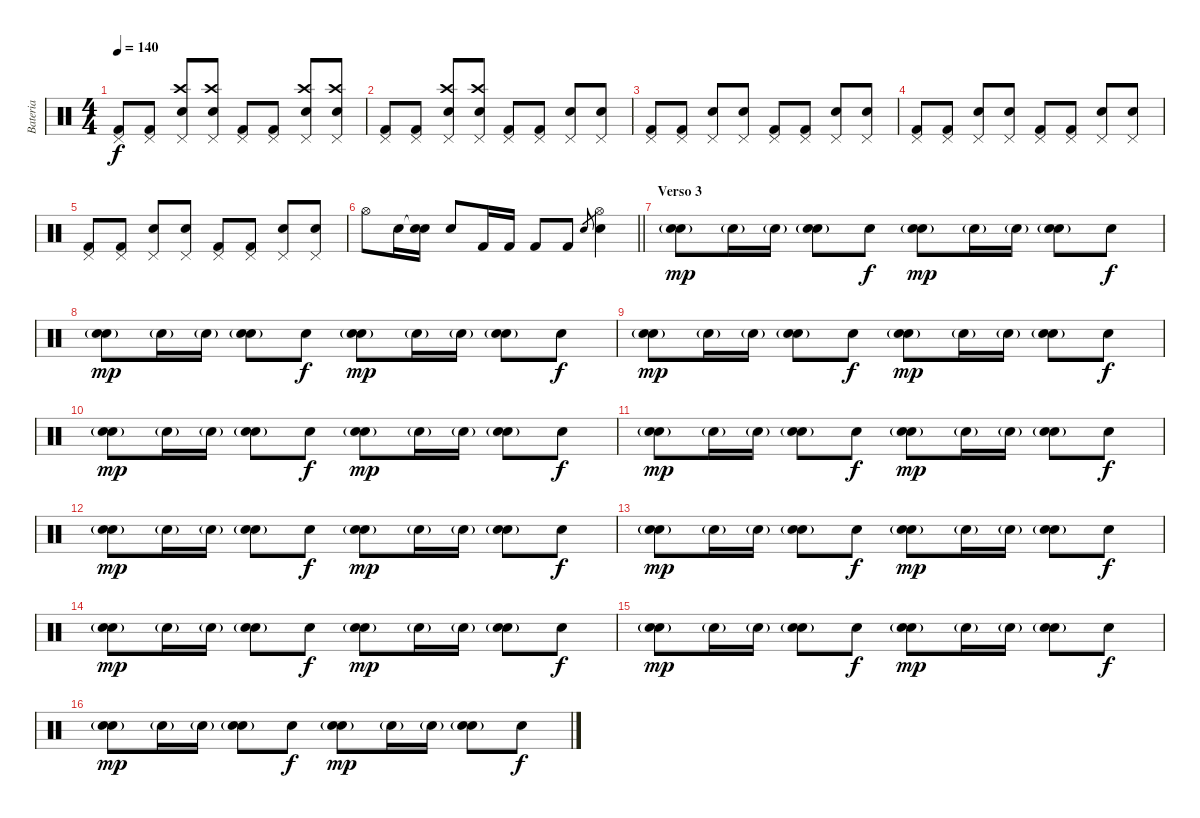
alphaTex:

\track ("Bateria" "Bateria") {instrument percussion}
\staff {score}
\articulation defaults
\ts (4 4)
\tempo 140
\clef neutral
\ks c
("Pedal Hi-Hat (hit)" "Kick (hit) 2").8{dy f} ("Pedal Hi-Hat (hit)" "Kick (hit) 2").8 ("Crash high (hit)" "Pedal Hi-Hat (hit)" "Electric Snare (hit)").8 ("Crash high (hit)" "Pedal Hi-Hat (hit)" "Electric Snare (hit)").8 ("Pedal Hi-Hat (hit)" "Kick (hit) 2").8 ("Pedal Hi-Hat (hit)" "Kick (hit) 2").8 ("Crash high (hit)" "Pedal Hi-Hat (hit)" "Electric Snare (hit)").8 ("Crash high (hit)" "Pedal Hi-Hat (hit)" "Electric Snare (hit)").8 |
("Pedal Hi-Hat (hit)" "Kick (hit) 2").8 ("Pedal Hi-Hat (hit)" "Kick (hit) 2").8 ("Crash high (hit)" "Pedal Hi-Hat (hit)" "Electric Snare (hit)").8 ("Crash high (hit)" "Pedal Hi-Hat (hit)" "Electric Snare (hit)").8 ("Pedal Hi-Hat (hit)" "Kick (hit) 2").8 ("Pedal Hi-Hat (hit)" "Kick (hit) 2").8 ("Pedal Hi-Hat (hit)" "Electric Snare (hit)").8 ("Pedal Hi-Hat (hit)" "Electric Snare (hit)").8 |
("Pedal Hi-Hat (hit)" "Kick (hit) 2").8 ("Pedal Hi-Hat (hit)" "Kick (hit) 2").8 ("Pedal Hi-Hat (hit)" "Electric Snare (hit)").8 ("Pedal Hi-Hat (hit)" "Electric Snare (hit)").8 ("Pedal Hi-Hat (hit)" "Kick (hit) 2").8 ("Pedal Hi-Hat (hit)" "Kick (hit) 2").8 ("Pedal Hi-Hat (hit)" "Electric Snare (hit)").8 ("Pedal Hi-Hat (hit)" "Electric Snare (hit)").8 |
("Pedal Hi-Hat (hit)" "Kick (hit) 2").8 ("Pedal Hi-Hat (hit)" "Kick (hit) 2").8 ("Pedal Hi-Hat (hit)" "Electric Snare (hit)").8 ("Pedal Hi-Hat (hit)" "Electric Snare (hit)").8 ("Pedal Hi-Hat (hit)" "Kick (hit) 2").8 ("Pedal Hi-Hat (hit)" "Kick (hit) 2").8 ("Pedal Hi-Hat (hit)" "Electric Snare (hit)").8 ("Pedal Hi-Hat (hit)" "Electric Snare (hit)").8 |
("Pedal Hi-Hat (hit)" "Kick (hit) 2").8 ("Pedal Hi-Hat (hit)" "Kick (hit) 2").8 ("Pedal Hi-Hat (hit)" "Electric Snare (hit)").8 ("Pedal Hi-Hat (hit)" "Electric Snare (hit)").8 ("Pedal Hi-Hat (hit)" "Kick (hit) 2").8 ("Pedal Hi-Hat (hit)" "Kick (hit) 2").8 ("Pedal Hi-Hat (hit)" "Electric Snare (hit)").8 ("Pedal Hi-Hat (hit)" "Electric Snare (hit)").8 |
\barLineRight lightlight "Hi-Hat (open)".8 "Electric Snare (hit)".16
("Electric Snare (hit)"{t} "Electric Snare (hit)").16 "Electric Snare (hit)".8 "Kick (hit) 2".16 "Kick (hit) 2".16 "Kick (hit) 2".8 "Kick (hit) 2".8 "Electric Snare (hit)".8{gr} ("Hi-Hat (open)" "Electric Snare (hit)").4 |
\section ("" "Verso 3")
("Snare (hit) 2" "Electric Snare (hit)"{g}).8{dy mp} "Electric Snare (hit)"{g}.16 "Electric Snare (hit)"{g}.16 ("Snare (hit) 2" "Electric Snare (hit)"{g}).8 "Electric Snare (hit)".8{dy f} ("Snare (hit) 2" "Electric Snare (hit)"{g}).8{dy mp} "Electric Snare (hit)"{g}.16 "Electric Snare (hit)"{g}.16 ("Snare (hit) 2" "Electric Snare (hit)"{g}).8 "Electric Snare (hit)".8{dy f} |
("Snare (hit) 2" "Electric Snare (hit)"{g}).8{dy mp} "Electric Snare (hit)"{g}.16 "Electric Snare (hit)"{g}.16 ("Snare (hit) 2" "Electric Snare (hit)"{g}).8 "Electric Snare (hit)".8{dy f} ("Snare (hit) 2" "Electric Snare (hit)"{g}).8{dy mp} "Electric Snare (hit)"{g}.16 "Electric Snare (hit)"{g}.16 ("Snare (hit) 2" "Electric Snare (hit)"{g}).8 "Electric Snare (hit)".8{dy f} |
("Snare (hit) 2" "Electric Snare (hit)"{g}).8{dy mp} "Electric Snare (hit)"{g}.16 "Electric Snare (hit)"{g}.16 ("Snare (hit) 2" "Electric Snare (hit)"{g}).8 "Electric Snare (hit)".8{dy f} ("Snare (hit) 2" "Electric Snare (hit)"{g}).8{dy mp} "Electric Snare (hit)"{g}.16 "Electric Snare (hit)"{g}.16 ("Snare (hit) 2" "Electric Snare (hit)"{g}).8 "Electric Snare (hit)".8{dy f} |
("Snare (hit) 2" "Electric Snare (hit)"{g}).8{dy mp} "Electric Snare (hit)"{g}.16 "Electric Snare (hit)"{g}.16 ("Snare (hit) 2" "Electric Snare (hit)"{g}).8 "Electric Snare (hit)".8{dy f} ("Snare (hit) 2" "Electric Snare (hit)"{g}).8{dy mp} "Electric Snare (hit)"{g}.16 "Electric Snare (hit)"{g}.16 ("Snare (hit) 2" "Electric Snare (hit)"{g}).8 "Electric Snare (hit)".8{dy f} |
("Snare (hit) 2" "Electric Snare (hit)"{g}).8{dy mp} "Electric Snare (hit)"{g}.16 "Electric Snare (hit)"{g}.16 ("Snare (hit) 2" "Electric Snare (hit)"{g}).8 "Electric Snare (hit)".8{dy f} ("Snare (hit) 2" "Electric Snare (hit)"{g}).8{dy mp} "Electric Snare (hit)"{g}.16 "Electric Snare (hit)"{g}.16 ("Snare (hit) 2" "Electric Snare (hit)"{g}).8 "Electric Snare (hit)".8{dy f} |
("Snare (hit) 2" "Electric Snare (hit)"{g}).8{dy mp} "Electric Snare (hit)"{g}.16 "Electric Snare (hit)"{g}.16 ("Snare (hit) 2" "Electric Snare (hit)"{g}).8 "Electric Snare (hit)".8{dy f} ("Snare (hit) 2" "Electric Snare (hit)"{g}).8{dy mp} "Electric Snare (hit)"{g}.16 "Electric Snare (hit)"{g}.16 ("Snare (hit) 2" "Electric Snare (hit)"{g}).8 "Electric Snare (hit)".8{dy f} |
("Snare (hit) 2" "Electric Snare (hit)"{g}).8{dy mp} "Electric Snare (hit)"{g}.16 "Electric Snare (hit)"{g}.16 ("Snare (hit) 2" "Electric Snare (hit)"{g}).8 "Electric Snare (hit)".8{dy f} ("Snare (hit) 2" "Electric Snare (hit)"{g}).8{dy mp} "Electric Snare (hit)"{g}.16 "Electric Snare (hit)"{g}.16 ("Snare (hit) 2" "Electric Snare (hit)"{g}).8 "Electric Snare (hit)".8{dy f} |
("Snare (hit) 2" "Electric Snare (hit)"{g}).8{dy mp} "Electric Snare (hit)"{g}.16 "Electric Snare (hit)"{g}.16 ("Snare (hit) 2" "Electric Snare (hit)"{g}).8 "Electric Snare (hit)".8{dy f} ("Snare (hit) 2" "Electric Snare (hit)"{g}).8{dy mp} "Electric Snare (hit)"{g}.16 "Electric Snare (hit)"{g}.16 ("Snare (hit) 2" "Electric Snare (hit)"{g}).8 "Electric Snare (hit)".8{dy f} |
("Snare (hit) 2" "Electric Snare (hit)"{g}).8{dy mp} "Electric Snare (hit)"{g}.16 "Electric Snare (hit)"{g}.16 ("Snare (hit) 2" "Electric Snare (hit)"{g}).8 "Electric Snare (hit)".8{dy f} ("Snare (hit) 2" "Electric Snare (hit)"{g}).8{dy mp} "Electric Snare (hit)"{g}.16 "Electric Snare (hit)"{g}.16 ("Snare (hit) 2" "Electric Snare (hit)"{g}).8 "Electric Snare (hit)".8{dy f} |
("Snare (hit) 2" "Electric Snare (hit)"{g}).8{dy mp} "Electric Snare (hit)"{g}.16 "Electric Snare (hit)"{g}.16 ("Snare (hit) 2" "Electric Snare (hit)"{g}).8 "Electric Snare (hit)".8{dy f} ("Snare (hit) 2" "Electric Snare (hit)"{g}).8{dy mp} "Electric Snare (hit)"{g}.16 "Electric Snare (hit)"{g}.16 ("Snare (hit) 2" "Electric Snare (hit)"{g}).8 "Electric Snare (hit)".8{dy f}
